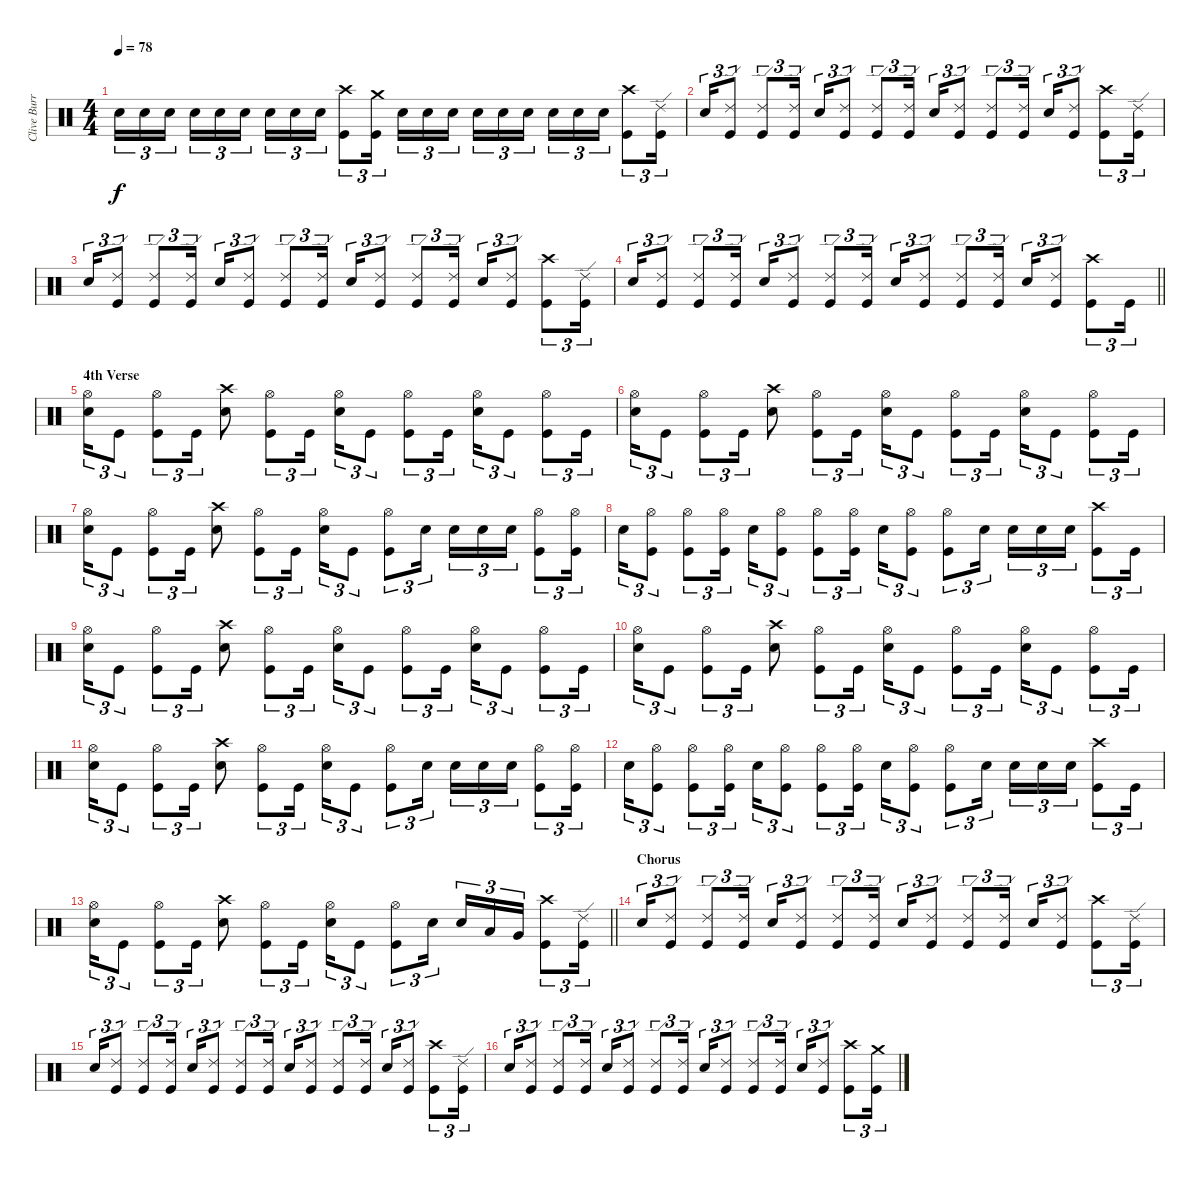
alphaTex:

\track ("Clive Burr" "Clive Burr") {instrument percussion}
\staff {score}
\articulation defaults
\ts (4 4)
\tempo 78
\clef neutral
\ks c "Electric Snare (hit)".16{tu (3 2) dy f} "Electric Snare (hit)".16{tu (3 2)} "Electric Snare (hit)".16{tu (3 2) beam splitsecondary} "Electric Snare (hit)".16{tu (3 2)} "Electric Snare (hit)".16{tu (3 2)} "Electric Snare (hit)".16{tu (3 2)} "Electric Snare (hit)".16{tu (3 2)} "Electric Snare (hit)".16{tu (3 2)} "Electric Snare (hit)".16{tu (3 2)}
("Crash high (hit)" "Kick (hit)").8{tu (3 2)} ("Crash medium (hit)" "Kick (hit)").16{tu (3 2)} "Electric Snare (hit)".16{tu (3 2)} "Electric Snare (hit)".16{tu (3 2)} "Electric Snare (hit)".16{tu (3 2) beam splitsecondary} "Electric Snare (hit)".16{tu (3 2)} "Electric Snare (hit)".16{tu (3 2)} "Electric Snare (hit)".16{tu (3 2)} "Electric Snare (hit)".16{tu (3 2)} "Electric Snare (hit)".16{tu (3 2)} "Electric Snare (hit)".16{tu (3 2)} ("Crash high (hit)" "Kick (hit)").8{tu (3 2)} ("Ride (edge) 2" "Kick (hit)").16{tu (3 2)} |
"Electric Snare (hit)".16{tu (3 2)} ("Ride (edge) 2" "Kick (hit)").8{tu (3 2)} ("Ride (edge) 2" "Kick (hit)").8{tu (3 2)} ("Ride (edge) 2" "Kick (hit)").16{tu (3 2)} "Electric Snare (hit)".16{tu (3 2)} ("Ride (edge) 2" "Kick (hit)").8{tu (3 2)} ("Ride (edge) 2" "Kick (hit)").8{tu (3 2)} ("Ride (edge) 2" "Kick (hit)").16{tu (3 2)} "Electric Snare (hit)".16{tu (3 2)} ("Ride (edge) 2" "Kick (hit)").8{tu (3 2)} ("Ride (edge) 2" "Kick (hit)").8{tu (3 2)} ("Ride (edge) 2" "Kick (hit)").16{tu (3 2)} "Electric Snare (hit)".16{tu (3 2)} ("Ride (edge) 2" "Kick (hit)").8{tu (3 2)} ("Crash high (hit)" "Kick (hit)").8{tu (3 2)} ("Ride (edge) 2" "Kick (hit)").16{tu (3 2)} |
"Electric Snare (hit)".16{tu (3 2)} ("Ride (edge) 2" "Kick (hit)").8{tu (3 2)} ("Ride (edge) 2" "Kick (hit)").8{tu (3 2)} ("Ride (edge) 2" "Kick (hit)").16{tu (3 2)} "Electric Snare (hit)".16{tu (3 2)} ("Ride (edge) 2" "Kick (hit)").8{tu (3 2)} ("Ride (edge) 2" "Kick (hit)").8{tu (3 2)} ("Ride (edge) 2" "Kick (hit)").16{tu (3 2)} "Electric Snare (hit)".16{tu (3 2)} ("Ride (edge) 2" "Kick (hit)").8{tu (3 2)} ("Ride (edge) 2" "Kick (hit)").8{tu (3 2)} ("Ride (edge) 2" "Kick (hit)").16{tu (3 2)} "Electric Snare (hit)".16{tu (3 2)} ("Ride (edge) 2" "Kick (hit)").8{tu (3 2)} ("Crash high (hit)" "Kick (hit)").8{tu (3 2)} ("Ride (edge) 2" "Kick (hit)").16{tu (3 2)} |
\barLineRight lightlight "Electric Snare (hit)".16{tu (3 2)}
("Ride (edge) 2" "Kick (hit)").8{tu (3 2)} ("Ride (edge) 2" "Kick (hit)").8{tu (3 2)} ("Ride (edge) 2" "Kick (hit)").16{tu (3 2)} "Electric Snare (hit)".16{tu (3 2)} ("Ride (edge) 2" "Kick (hit)").8{tu (3 2)} ("Ride (edge) 2" "Kick (hit)").8{tu (3 2)} ("Ride (edge) 2" "Kick (hit)").16{tu (3 2)} "Electric Snare (hit)".16{tu (3 2)} ("Ride (edge) 2" "Kick (hit)").8{tu (3 2)} ("Ride (edge) 2" "Kick (hit)").8{tu (3 2)} ("Ride (edge) 2" "Kick (hit)").16{tu (3 2)} "Electric Snare (hit)".16{tu (3 2)} ("Ride (edge) 2" "Kick (hit)").8{tu (3 2)} ("Crash high (hit)" "Kick (hit)").8{tu (3 2)} "Kick (hit)".16{tu (3 2)} |
\section ("" "4th Verse")
("Hi-Hat (open)" "Electric Snare (hit)").16{tu (3 2)} "Kick (hit)".8{tu (3 2)} ("Hi-Hat (open)" "Kick (hit)").8{tu (3 2)} "Kick (hit)".16{tu (3 2)} ("Crash high (hit)" "Electric Snare (hit)").8 ("Hi-Hat (open)" "Kick (hit)").8{tu (3 2)} "Kick (hit)".16{tu (3 2)} ("Hi-Hat (open)" "Electric Snare (hit)").16{tu (3 2)} "Kick (hit)".8{tu (3 2)} ("Hi-Hat (open)" "Kick (hit)").8{tu (3 2)} "Kick (hit)".16{tu (3 2)} ("Hi-Hat (open)" "Electric Snare (hit)").16{tu (3 2)} "Kick (hit)".8{tu (3 2)} ("Hi-Hat (open)" "Kick (hit)").8{tu (3 2)} "Kick (hit)".16{tu (3 2)} |
("Hi-Hat (open)" "Electric Snare (hit)").16{tu (3 2)} "Kick (hit)".8{tu (3 2)} ("Hi-Hat (open)" "Kick (hit)").8{tu (3 2)} "Kick (hit)".16{tu (3 2)} ("Crash high (hit)" "Electric Snare (hit)").8 ("Hi-Hat (open)" "Kick (hit)").8{tu (3 2)} "Kick (hit)".16{tu (3 2)} ("Hi-Hat (open)" "Electric Snare (hit)").16{tu (3 2)} "Kick (hit)".8{tu (3 2)} ("Hi-Hat (open)" "Kick (hit)").8{tu (3 2)} "Kick (hit)".16{tu (3 2)} ("Hi-Hat (open)" "Electric Snare (hit)").16{tu (3 2)} "Kick (hit)".8{tu (3 2)} ("Hi-Hat (open)" "Kick (hit)").8{tu (3 2)} "Kick (hit)".16{tu (3 2)} |
("Hi-Hat (open)" "Electric Snare (hit)").16{tu (3 2)} "Kick (hit)".8{tu (3 2)} ("Hi-Hat (open)" "Kick (hit)").8{tu (3 2)} "Kick (hit)".16{tu (3 2)} ("Crash high (hit)" "Electric Snare (hit)").8 ("Hi-Hat (open)" "Kick (hit)").8{tu (3 2)} "Kick (hit)".16{tu (3 2)} ("Hi-Hat (open)" "Electric Snare (hit)").16{tu (3 2)} "Kick (hit)".8{tu (3 2)} ("Hi-Hat (open)" "Kick (hit)").8{tu (3 2)} "Electric Snare (hit)".16{tu (3 2)} "Electric Snare (hit)".16{tu (3 2)} "Electric Snare (hit)".16{tu (3 2)} "Electric Snare (hit)".16{tu (3 2)} ("Hi-Hat (open)" "Kick (hit)").8{tu (3 2)} ("Hi-Hat (open)" "Kick (hit)").16{tu (3 2)} |
"Electric Snare (hit)".16{tu (3 2)} ("Hi-Hat (open)" "Kick (hit)").8{tu (3 2)} ("Hi-Hat (open)" "Kick (hit)").8{tu (3 2)} ("Hi-Hat (open)" "Kick (hit)").16{tu (3 2)} "Electric Snare (hit)".16{tu (3 2)} ("Hi-Hat (open)" "Kick (hit)").8{tu (3 2)} ("Hi-Hat (open)" "Kick (hit)").8{tu (3 2)} ("Hi-Hat (open)" "Kick (hit)").16{tu (3 2)} "Electric Snare (hit)".16{tu (3 2)} ("Hi-Hat (open)" "Kick (hit)").8{tu (3 2)} ("Hi-Hat (open)" "Kick (hit)").8{tu (3 2)} "Electric Snare (hit)".16{tu (3 2)} "Electric Snare (hit)".16{tu (3 2)} "Electric Snare (hit)".16{tu (3 2)} "Electric Snare (hit)".16{tu (3 2)} ("Crash high (hit)" "Kick (hit)").8{tu (3 2)} "Kick (hit)".16{tu (3 2)} |
("Hi-Hat (open)" "Electric Snare (hit)").16{tu (3 2)} "Kick (hit)".8{tu (3 2)} ("Hi-Hat (open)" "Kick (hit)").8{tu (3 2)} "Kick (hit)".16{tu (3 2)} ("Crash high (hit)" "Electric Snare (hit)").8 ("Hi-Hat (open)" "Kick (hit)").8{tu (3 2)} "Kick (hit)".16{tu (3 2)} ("Hi-Hat (open)" "Electric Snare (hit)").16{tu (3 2)} "Kick (hit)".8{tu (3 2)} ("Hi-Hat (open)" "Kick (hit)").8{tu (3 2)} "Kick (hit)".16{tu (3 2)} ("Hi-Hat (open)" "Electric Snare (hit)").16{tu (3 2)} "Kick (hit)".8{tu (3 2)} ("Hi-Hat (open)" "Kick (hit)").8{tu (3 2)} "Kick (hit)".16{tu (3 2)} |
("Hi-Hat (open)" "Electric Snare (hit)").16{tu (3 2)} "Kick (hit)".8{tu (3 2)} ("Hi-Hat (open)" "Kick (hit)").8{tu (3 2)} "Kick (hit)".16{tu (3 2)} ("Crash high (hit)" "Electric Snare (hit)").8 ("Hi-Hat (open)" "Kick (hit)").8{tu (3 2)} "Kick (hit)".16{tu (3 2)} ("Hi-Hat (open)" "Electric Snare (hit)").16{tu (3 2)} "Kick (hit)".8{tu (3 2)} ("Hi-Hat (open)" "Kick (hit)").8{tu (3 2)} "Kick (hit)".16{tu (3 2)} ("Hi-Hat (open)" "Electric Snare (hit)").16{tu (3 2)} "Kick (hit)".8{tu (3 2)} ("Hi-Hat (open)" "Kick (hit)").8{tu (3 2)} "Kick (hit)".16{tu (3 2)} |
("Hi-Hat (open)" "Electric Snare (hit)").16{tu (3 2)} "Kick (hit)".8{tu (3 2)} ("Hi-Hat (open)" "Kick (hit)").8{tu (3 2)} "Kick (hit)".16{tu (3 2)} ("Crash high (hit)" "Electric Snare (hit)").8 ("Hi-Hat (open)" "Kick (hit)").8{tu (3 2)} "Kick (hit)".16{tu (3 2)} ("Hi-Hat (open)" "Electric Snare (hit)").16{tu (3 2)} "Kick (hit)".8{tu (3 2)} ("Hi-Hat (open)" "Kick (hit)").8{tu (3 2)} "Electric Snare (hit)".16{tu (3 2)} "Electric Snare (hit)".16{tu (3 2)} "Electric Snare (hit)".16{tu (3 2)} "Electric Snare (hit)".16{tu (3 2)} ("Hi-Hat (open)" "Kick (hit)").8{tu (3 2)} ("Hi-Hat (open)" "Kick (hit)").16{tu (3 2)} |
"Electric Snare (hit)".16{tu (3 2)} ("Hi-Hat (open)" "Kick (hit)").8{tu (3 2)} ("Hi-Hat (open)" "Kick (hit)").8{tu (3 2)} ("Hi-Hat (open)" "Kick (hit)").16{tu (3 2)} "Electric Snare (hit)".16{tu (3 2)} ("Hi-Hat (open)" "Kick (hit)").8{tu (3 2)} ("Hi-Hat (open)" "Kick (hit)").8{tu (3 2)} ("Hi-Hat (open)" "Kick (hit)").16{tu (3 2)} "Electric Snare (hit)".16{tu (3 2)} ("Hi-Hat (open)" "Kick (hit)").8{tu (3 2)} ("Hi-Hat (open)" "Kick (hit)").8{tu (3 2)} "Electric Snare (hit)".16{tu (3 2)} "Electric Snare (hit)".16{tu (3 2)} "Electric Snare (hit)".16{tu (3 2)} "Electric Snare (hit)".16{tu (3 2)} ("Crash high (hit)" "Kick (hit)").8{tu (3 2)} "Kick (hit)".16{tu (3 2)} |
\barLineRight lightlight
("Hi-Hat (open)" "Electric Snare (hit)").16{tu (3 2)} "Kick (hit)".8{tu (3 2)} ("Hi-Hat (open)" "Kick (hit)").8{tu (3 2)} "Kick (hit)".16{tu (3 2)} ("Crash high (hit)" "Electric Snare (hit)").8 ("Hi-Hat (open)" "Kick (hit)").8{tu (3 2)} "Kick (hit)".16{tu (3 2)} ("Hi-Hat (open)" "Electric Snare (hit)").16{tu (3 2)} "Kick (hit)".8{tu (3 2)} ("Hi-Hat (open)" "Kick (hit)").8{tu (3 2)} "Electric Snare (hit)".16{tu (3 2)} "Electric Snare (hit)".16{tu (3 2)} "Low Tom (hit)".16{tu (3 2)} "Very Low Tom (hit)".16{tu (3 2)} ("Crash high (hit)" "Kick (hit)").8{tu (3 2)} ("Ride (edge) 2" "Kick (hit)").16{tu (3 2)} |
\section ("" "Chorus")
"Electric Snare (hit)".16{tu (3 2)} ("Ride (edge) 2" "Kick (hit)").8{tu (3 2)} ("Ride (edge) 2" "Kick (hit)").8{tu (3 2)} ("Ride (edge) 2" "Kick (hit)").16{tu (3 2)} "Electric Snare (hit)".16{tu (3 2)} ("Ride (edge) 2" "Kick (hit)").8{tu (3 2)} ("Ride (edge) 2" "Kick (hit)").8{tu (3 2)} ("Ride (edge) 2" "Kick (hit)").16{tu (3 2)} "Electric Snare (hit)".16{tu (3 2)} ("Ride (edge) 2" "Kick (hit)").8{tu (3 2)} ("Ride (edge) 2" "Kick (hit)").8{tu (3 2)} ("Ride (edge) 2" "Kick (hit)").16{tu (3 2)} "Electric Snare (hit)".16{tu (3 2)} ("Ride (edge) 2" "Kick (hit)").8{tu (3 2)} ("Crash high (hit)" "Kick (hit)").8{tu (3 2)} ("Ride (edge) 2" "Kick (hit)").16{tu (3 2)} |
"Electric Snare (hit)".16{tu (3 2)} ("Ride (edge) 2" "Kick (hit)").8{tu (3 2)} ("Ride (edge) 2" "Kick (hit)").8{tu (3 2)} ("Ride (edge) 2" "Kick (hit)").16{tu (3 2)} "Electric Snare (hit)".16{tu (3 2)} ("Ride (edge) 2" "Kick (hit)").8{tu (3 2)} ("Ride (edge) 2" "Kick (hit)").8{tu (3 2)} ("Ride (edge) 2" "Kick (hit)").16{tu (3 2)} "Electric Snare (hit)".16{tu (3 2)} ("Ride (edge) 2" "Kick (hit)").8{tu (3 2)} ("Ride (edge) 2" "Kick (hit)").8{tu (3 2)} ("Ride (edge) 2" "Kick (hit)").16{tu (3 2)} "Electric Snare (hit)".16{tu (3 2)} ("Ride (edge) 2" "Kick (hit)").8{tu (3 2)} ("Crash high (hit)" "Kick (hit)").8{tu (3 2)} ("Ride (edge) 2" "Kick (hit)").16{tu (3 2)} |
"Electric Snare (hit)".16{tu (3 2)} ("Ride (edge) 2" "Kick (hit)").8{tu (3 2)} ("Ride (edge) 2" "Kick (hit)").8{tu (3 2)} ("Ride (edge) 2" "Kick (hit)").16{tu (3 2)} "Electric Snare (hit)".16{tu (3 2)} ("Ride (edge) 2" "Kick (hit)").8{tu (3 2)} ("Ride (edge) 2" "Kick (hit)").8{tu (3 2)} ("Ride (edge) 2" "Kick (hit)").16{tu (3 2)} "Electric Snare (hit)".16{tu (3 2)} ("Ride (edge) 2" "Kick (hit)").8{tu (3 2)} ("Ride (edge) 2" "Kick (hit)").8{tu (3 2)} ("Ride (edge) 2" "Kick (hit)").16{tu (3 2)} "Electric Snare (hit)".16{tu (3 2)} ("Ride (edge) 2" "Kick (hit)").8{tu (3 2)} ("Crash high (hit)" "Kick (hit)").8{tu (3 2)} ("Crash medium (hit)" "Kick (hit)").16{tu (3 2)}
